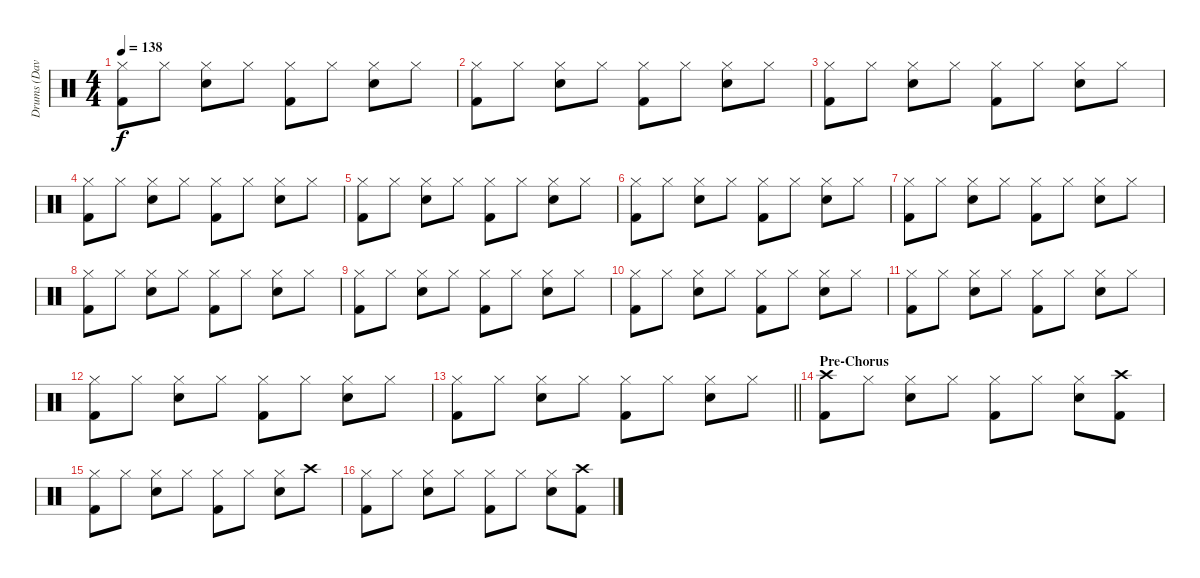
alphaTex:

\track ("Drums (Dave Holland)" "Drums (Dav") {instrument percussion}
\staff {score}
\articulation defaults
\ts (4 4)
\tempo 138
\clef neutral
\ks c
("Hi-Hat (closed)" "Kick (hit) 2").8{dy f} "Hi-Hat (closed)".8 ("Hi-Hat (closed)" "Snare (hit) 2").8 "Hi-Hat (closed)".8 ("Hi-Hat (closed)" "Kick (hit) 2").8 "Hi-Hat (closed)".8 ("Hi-Hat (closed)" "Snare (hit) 2").8 "Hi-Hat (closed)".8 |
("Hi-Hat (closed)" "Kick (hit) 2").8 "Hi-Hat (closed)".8 ("Hi-Hat (closed)" "Snare (hit) 2").8 "Hi-Hat (closed)".8 ("Hi-Hat (closed)" "Kick (hit) 2").8 "Hi-Hat (closed)".8 ("Hi-Hat (closed)" "Snare (hit) 2").8 "Hi-Hat (closed)".8 |
("Hi-Hat (closed)" "Kick (hit) 2").8 "Hi-Hat (closed)".8 ("Hi-Hat (closed)" "Snare (hit) 2").8 "Hi-Hat (closed)".8 ("Hi-Hat (closed)" "Kick (hit) 2").8 "Hi-Hat (closed)".8 ("Hi-Hat (closed)" "Snare (hit) 2").8 "Hi-Hat (closed)".8 |
("Hi-Hat (closed)" "Kick (hit) 2").8 "Hi-Hat (closed)".8 ("Hi-Hat (closed)" "Snare (hit) 2").8 "Hi-Hat (closed)".8 ("Hi-Hat (closed)" "Kick (hit) 2").8 "Hi-Hat (closed)".8 ("Hi-Hat (closed)" "Snare (hit) 2").8 "Hi-Hat (closed)".8 |
("Hi-Hat (closed)" "Kick (hit) 2").8 "Hi-Hat (closed)".8 ("Hi-Hat (closed)" "Snare (hit) 2").8 "Hi-Hat (closed)".8 ("Hi-Hat (closed)" "Kick (hit) 2").8 "Hi-Hat (closed)".8 ("Hi-Hat (closed)" "Snare (hit) 2").8 "Hi-Hat (closed)".8 |
("Hi-Hat (closed)" "Kick (hit) 2").8 "Hi-Hat (closed)".8 ("Hi-Hat (closed)" "Snare (hit) 2").8 "Hi-Hat (closed)".8 ("Hi-Hat (closed)" "Kick (hit) 2").8 "Hi-Hat (closed)".8 ("Hi-Hat (closed)" "Snare (hit) 2").8 "Hi-Hat (closed)".8 |
("Hi-Hat (closed)" "Kick (hit) 2").8 "Hi-Hat (closed)".8 ("Hi-Hat (closed)" "Snare (hit) 2").8 "Hi-Hat (closed)".8 ("Hi-Hat (closed)" "Kick (hit) 2").8 "Hi-Hat (closed)".8 ("Hi-Hat (closed)" "Snare (hit) 2").8 "Hi-Hat (closed)".8 |
("Hi-Hat (closed)" "Kick (hit) 2").8 "Hi-Hat (closed)".8 ("Hi-Hat (closed)" "Snare (hit) 2").8 "Hi-Hat (closed)".8 ("Hi-Hat (closed)" "Kick (hit) 2").8 "Hi-Hat (closed)".8 ("Hi-Hat (closed)" "Snare (hit) 2").8 "Hi-Hat (closed)".8 |
("Hi-Hat (closed)" "Kick (hit) 2").8 "Hi-Hat (closed)".8 ("Hi-Hat (closed)" "Snare (hit) 2").8 "Hi-Hat (closed)".8 ("Hi-Hat (closed)" "Kick (hit) 2").8 "Hi-Hat (closed)".8 ("Hi-Hat (closed)" "Snare (hit) 2").8 "Hi-Hat (closed)".8 |
("Hi-Hat (closed)" "Kick (hit) 2").8 "Hi-Hat (closed)".8 ("Hi-Hat (closed)" "Snare (hit) 2").8 "Hi-Hat (closed)".8 ("Hi-Hat (closed)" "Kick (hit) 2").8 "Hi-Hat (closed)".8 ("Hi-Hat (closed)" "Snare (hit) 2").8 "Hi-Hat (closed)".8 |
("Hi-Hat (closed)" "Kick (hit) 2").8 "Hi-Hat (closed)".8 ("Hi-Hat (closed)" "Snare (hit) 2").8 "Hi-Hat (closed)".8 ("Hi-Hat (closed)" "Kick (hit) 2").8 "Hi-Hat (closed)".8 ("Hi-Hat (closed)" "Snare (hit) 2").8 "Hi-Hat (closed)".8 |
("Hi-Hat (closed)" "Kick (hit) 2").8 "Hi-Hat (closed)".8 ("Hi-Hat (closed)" "Snare (hit) 2").8 "Hi-Hat (closed)".8 ("Hi-Hat (closed)" "Kick (hit) 2").8 "Hi-Hat (closed)".8 ("Hi-Hat (closed)" "Snare (hit) 2").8 "Hi-Hat (closed)".8 |
\barLineRight lightlight
("Hi-Hat (closed)" "Kick (hit) 2").8 "Hi-Hat (closed)".8 ("Hi-Hat (closed)" "Snare (hit) 2").8 "Hi-Hat (closed)".8 ("Hi-Hat (closed)" "Kick (hit) 2").8 "Hi-Hat (closed)".8 ("Hi-Hat (closed)" "Snare (hit) 2").8 "Hi-Hat (closed)".8 |
\section ("" "Pre-Chorus")
("Crash high (hit)" "Kick (hit) 2").8 "Hi-Hat (closed)".8 ("Hi-Hat (closed)" "Snare (hit) 2").8 "Hi-Hat (closed)".8 ("Hi-Hat (closed)" "Kick (hit) 2").8 "Hi-Hat (closed)".8 ("Hi-Hat (closed)" "Snare (hit) 2").8 ("Crash high (hit)" "Kick (hit) 2").8 |
("Hi-Hat (closed)" "Kick (hit) 2").8 "Hi-Hat (closed)".8 ("Hi-Hat (closed)" "Snare (hit) 2").8 "Hi-Hat (closed)".8 ("Hi-Hat (closed)" "Kick (hit) 2").8 "Hi-Hat (closed)".8 ("Hi-Hat (closed)" "Snare (hit) 2").8 "Crash high (hit)".8 |
("Hi-Hat (closed)" "Kick (hit) 2").8 "Hi-Hat (closed)".8 ("Hi-Hat (closed)" "Snare (hit) 2").8 "Hi-Hat (closed)".8 ("Hi-Hat (closed)" "Kick (hit) 2").8 "Hi-Hat (closed)".8 ("Hi-Hat (closed)" "Snare (hit) 2").8 ("Crash high (hit)" "Kick (hit) 2").8
